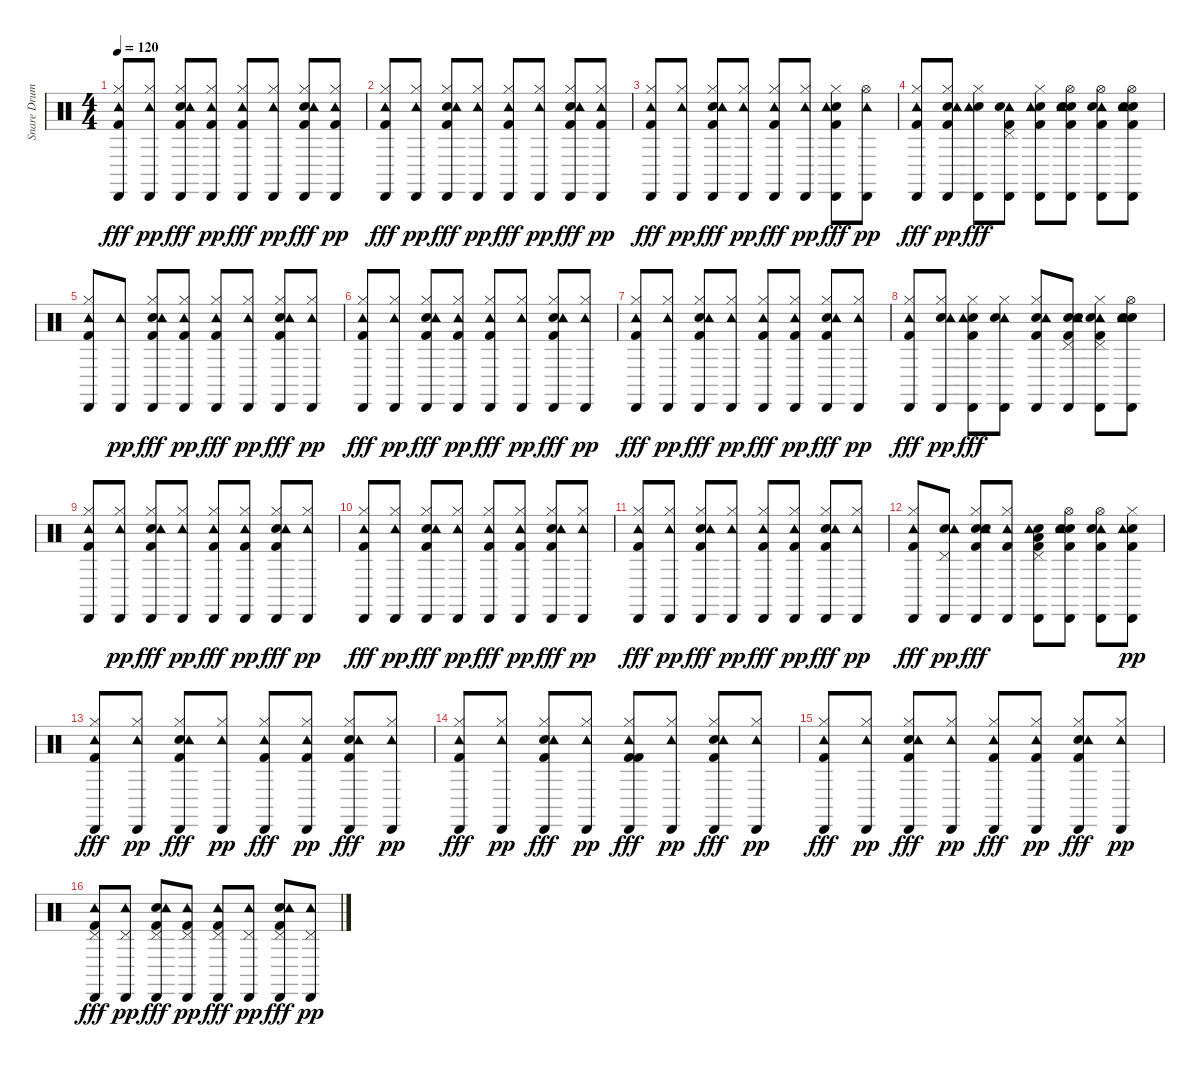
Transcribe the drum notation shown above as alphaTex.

\track ("Snare Drum      " "Snare Drum") {instrument percussion}
\staff {score}
\articulation defaults
\ts (4 4)
\tempo 120
\clef neutral
\ks c
("Kick (hit) 2" "Hi-Hat (closed)" "Tambourine (hit)" "Cabasa (hit)").8{dy fff} ("Hi-Hat (closed)" "Tambourine (hit)" "Cabasa (hit)").8{dy pp} ("Snare (hit) 2" "Kick (hit) 2" "Hi-Hat (closed)" "Tambourine (hit)" "Cabasa (hit)").8{dy fff} ("Kick (hit) 2" "Hi-Hat (closed)" "Tambourine (hit)" "Cabasa (hit)").8{dy pp} ("Kick (hit) 2" "Hi-Hat (closed)" "Tambourine (hit)" "Cabasa (hit)").8{dy fff} ("Hi-Hat (closed)" "Tambourine (hit)" "Cabasa (hit)").8{dy pp} ("Snare (hit) 2" "Kick (hit) 2" "Hi-Hat (closed)" "Tambourine (hit)" "Cabasa (hit)").8{dy fff} ("Kick (hit) 2" "Hi-Hat (closed)" "Tambourine (hit)" "Cabasa (hit)").8{dy pp} |
("Kick (hit) 2" "Hi-Hat (closed)" "Tambourine (hit)" "Cabasa (hit)").8{dy fff} ("Hi-Hat (closed)" "Tambourine (hit)" "Cabasa (hit)").8{dy pp} ("Snare (hit) 2" "Kick (hit) 2" "Hi-Hat (closed)" "Tambourine (hit)" "Cabasa (hit)").8{dy fff} ("Hi-Hat (closed)" "Tambourine (hit)" "Cabasa (hit)").8{dy pp} ("Kick (hit) 2" "Hi-Hat (closed)" "Tambourine (hit)" "Cabasa (hit)").8{dy fff} ("Hi-Hat (closed)" "Tambourine (hit)" "Cabasa (hit)").8{dy pp} ("Snare (hit) 2" "Kick (hit) 2" "Hi-Hat (closed)" "Tambourine (hit)" "Cabasa (hit)").8{dy fff} ("Kick (hit) 2" "Hi-Hat (closed)" "Tambourine (hit)" "Cabasa (hit)").8{dy pp} |
("Kick (hit) 2" "Hi-Hat (closed)" "Tambourine (hit)" "Cabasa (hit)").8{dy fff} ("Hi-Hat (closed)" "Tambourine (hit)" "Cabasa (hit)").8{dy pp} ("Snare (hit) 2" "Kick (hit) 2" "Hi-Hat (closed)" "Tambourine (hit)" "Cabasa (hit)").8{dy fff} ("Hi-Hat (closed)" "Tambourine (hit)" "Cabasa (hit)").8{dy pp} ("Kick (hit) 2" "Hi-Hat (closed)" "Tambourine (hit)" "Cabasa (hit)").8{dy fff} ("Hi-Hat (closed)" "Tambourine (hit)" "Cabasa (hit)").8{dy pp} ("Snare (hit) 2" "Kick (hit) 2" "Hi-Hat (closed)" "Tambourine (hit)" "Cabasa (hit)").8{dy fff} ("Hi-Hat (open)" "Tambourine (hit)" "Cabasa (hit)").8{dy pp} |
("Kick (hit) 2" "Hi-Hat (closed)" "Tambourine (hit)" "Cabasa (hit)").8{dy fff} ("Snare (hit) 2" "Kick (hit) 2" "Hi-Hat (closed)" "Tambourine (hit)" "Cabasa (hit)").8{dy pp} ("Snare (hit) 2" "Hi-Hat (closed)" "Tambourine (hit)" "Cabasa (hit)").8{dy fff} ("Kick (hit) 2" "Pedal Hi-Hat (hit)" "Tambourine (hit)" "Cabasa (hit)" "Snare (hit) 2").8 ("Snare (hit) 2" "Kick (hit) 2" "Hi-Hat (closed)" "Tambourine (hit)" "Cabasa (hit)").8 ("Snare (hit) 2" "Hi-Hat (open)" "Tambourine (hit)" "Cabasa (hit)" "Snare (hit) 2" "Kick (hit) 2").8 ("Kick (hit) 2" "Hi-Hat (open)" "Tambourine (hit)" "Cabasa (hit)" "Snare (hit) 2").8 ("Snare (hit) 2" "Kick (hit) 2" "Hi-Hat (open)" "Tambourine (hit)" "Cabasa (hit)" "Snare (hit) 2").8 |
("Kick (hit) 2" "Hi-Hat (closed)" "Tambourine (hit)" "Cabasa (hit)").8 ("Tambourine (hit)" "Cabasa (hit)").8{dy pp} ("Snare (hit) 2" "Kick (hit) 2" "Hi-Hat (closed)" "Tambourine (hit)" "Cabasa (hit)").8{dy fff} ("Kick (hit) 2" "Hi-Hat (closed)" "Tambourine (hit)" "Cabasa (hit)").8{dy pp} ("Kick (hit) 2" "Hi-Hat (closed)" "Tambourine (hit)" "Cabasa (hit)").8{dy fff} ("Hi-Hat (closed)" "Tambourine (hit)" "Cabasa (hit)").8{dy pp} ("Snare (hit) 2" "Kick (hit) 2" "Hi-Hat (closed)" "Tambourine (hit)" "Cabasa (hit)").8{dy fff} ("Hi-Hat (closed)" "Tambourine (hit)" "Cabasa (hit)").8{dy pp} |
("Kick (hit) 2" "Hi-Hat (closed)" "Tambourine (hit)" "Cabasa (hit)").8{dy fff} ("Hi-Hat (closed)" "Tambourine (hit)" "Cabasa (hit)").8{dy pp} ("Snare (hit) 2" "Kick (hit) 2" "Hi-Hat (closed)" "Tambourine (hit)" "Cabasa (hit)").8{dy fff} ("Kick (hit) 2" "Hi-Hat (closed)" "Tambourine (hit)" "Cabasa (hit)").8{dy pp} ("Kick (hit) 2" "Hi-Hat (closed)" "Tambourine (hit)" "Cabasa (hit)").8{dy fff} ("Hi-Hat (closed)" "Tambourine (hit)" "Cabasa (hit)").8{dy pp} ("Snare (hit) 2" "Kick (hit) 2" "Hi-Hat (closed)" "Tambourine (hit)" "Cabasa (hit)").8{dy fff} ("Hi-Hat (closed)" "Tambourine (hit)" "Cabasa (hit)").8{dy pp} |
("Kick (hit) 2" "Hi-Hat (closed)" "Tambourine (hit)" "Cabasa (hit)").8{dy fff} ("Hi-Hat (closed)" "Tambourine (hit)" "Cabasa (hit)").8{dy pp} ("Snare (hit) 2" "Kick (hit) 2" "Hi-Hat (closed)" "Tambourine (hit)" "Cabasa (hit)").8{dy fff} ("Hi-Hat (closed)" "Tambourine (hit)" "Cabasa (hit)").8{dy pp} ("Kick (hit) 2" "Hi-Hat (closed)" "Tambourine (hit)" "Cabasa (hit)").8{dy fff} ("Kick (hit) 2" "Hi-Hat (closed)" "Tambourine (hit)" "Cabasa (hit)").8{dy pp} ("Snare (hit) 2" "Kick (hit) 2" "Hi-Hat (closed)" "Tambourine (hit)" "Cabasa (hit)").8{dy fff} ("Hi-Hat (closed)" "Tambourine (hit)" "Cabasa (hit)").8{dy pp} |
("Kick (hit) 2" "Hi-Hat (closed)" "Tambourine (hit)" "Cabasa (hit)").8{dy fff} ("Snare (hit) 2" "Hi-Hat (closed)" "Tambourine (hit)" "Cabasa (hit)").8{dy pp} ("Snare (hit) 2" "Kick (hit) 2" "Hi-Hat (closed)" "Tambourine (hit)" "Cabasa (hit)").8{dy fff} ("Hi-Hat (closed)" "Tambourine (hit)" "Cabasa (hit)" "Snare (hit) 2").8 ("Snare (hit) 2" "Kick (hit) 2" "Hi-Hat (closed)" "Tambourine (hit)" "Cabasa (hit)").8 ("Snare (hit) 2" "Kick (hit) 2" "Pedal Hi-Hat (hit)" "Tambourine (hit)" "Cabasa (hit)" "Snare (hit) 2").8 ("Kick (hit) 2" "Hi-Hat (closed)" "Tambourine (hit)" "Cabasa (hit)" "Snare (hit) 2" "Pedal Hi-Hat (hit)").8 ("Snare (hit) 2" "Tambourine (hit)" "Cabasa (hit)" "Snare (hit) 2" "Hi-Hat (open)").8 |
("Kick (hit) 2" "Hi-Hat (closed)" "Tambourine (hit)" "Cabasa (hit)").8 ("Hi-Hat (closed)" "Tambourine (hit)" "Cabasa (hit)").8{dy pp} ("Snare (hit) 2" "Kick (hit) 2" "Hi-Hat (closed)" "Tambourine (hit)" "Cabasa (hit)").8{dy fff} ("Hi-Hat (closed)" "Tambourine (hit)" "Cabasa (hit)").8{dy pp} ("Kick (hit) 2" "Hi-Hat (closed)" "Tambourine (hit)" "Cabasa (hit)").8{dy fff} ("Kick (hit) 2" "Hi-Hat (closed)" "Tambourine (hit)" "Cabasa (hit)").8{dy pp} ("Snare (hit) 2" "Kick (hit) 2" "Hi-Hat (closed)" "Tambourine (hit)" "Cabasa (hit)").8{dy fff} ("Hi-Hat (closed)" "Tambourine (hit)" "Cabasa (hit)").8{dy pp} |
("Kick (hit) 2" "Hi-Hat (closed)" "Tambourine (hit)" "Cabasa (hit)").8{dy fff} ("Hi-Hat (closed)" "Tambourine (hit)" "Cabasa (hit)").8{dy pp} ("Snare (hit) 2" "Kick (hit) 2" "Hi-Hat (closed)" "Tambourine (hit)" "Cabasa (hit)").8{dy fff} ("Hi-Hat (closed)" "Tambourine (hit)" "Cabasa (hit)").8{dy pp} ("Kick (hit) 2" "Hi-Hat (closed)" "Tambourine (hit)" "Cabasa (hit)").8{dy fff} ("Kick (hit) 2" "Hi-Hat (closed)" "Tambourine (hit)" "Cabasa (hit)").8{dy pp} ("Snare (hit) 2" "Kick (hit) 2" "Hi-Hat (closed)" "Tambourine (hit)" "Cabasa (hit)").8{dy fff} ("Hi-Hat (closed)" "Tambourine (hit)" "Cabasa (hit)").8{dy pp} |
("Kick (hit) 2" "Hi-Hat (closed)" "Tambourine (hit)" "Cabasa (hit)").8{dy fff} ("Hi-Hat (closed)" "Tambourine (hit)" "Cabasa (hit)").8{dy pp} ("Snare (hit) 2" "Kick (hit) 2" "Hi-Hat (closed)" "Tambourine (hit)" "Cabasa (hit)").8{dy fff} ("Hi-Hat (closed)" "Tambourine (hit)" "Cabasa (hit)").8{dy pp} ("Kick (hit) 2" "Hi-Hat (closed)" "Tambourine (hit)" "Cabasa (hit)").8{dy fff} ("Kick (hit) 2" "Hi-Hat (closed)" "Tambourine (hit)" "Cabasa (hit)").8{dy pp} ("Snare (hit) 2" "Kick (hit) 2" "Hi-Hat (closed)" "Tambourine (hit)" "Cabasa (hit)").8{dy fff} ("Hi-Hat (closed)" "Tambourine (hit)" "Cabasa (hit)").8{dy pp} |
("Kick (hit) 2" "Hi-Hat (closed)" "Tambourine (hit)" "Cabasa (hit)").8{dy fff} ("Snare (hit) 2" "Pedal Hi-Hat (hit)" "Tambourine (hit)" "Cabasa (hit)").8{dy pp} ("Snare (hit) 2" "Kick (hit) 2" "Hi-Hat (closed)" "Tambourine (hit)" "Cabasa (hit)" "Snare (hit) 2").8{dy fff} ("Tambourine (hit)" "Cabasa (hit)" "Kick (hit) 2" "Hi-Hat (closed)").8 ("Snare (hit) 2" "Kick (hit) 2" "Pedal Hi-Hat (hit)" "Low Tom (hit)" "Tambourine (hit)" "Cabasa (hit)").8 ("Snare (hit) 2" "Hi-Hat (open)" "Tambourine (hit)" "Cabasa (hit)" "Snare (hit) 2" "Kick (hit) 2").8 ("Kick (hit) 2" "Hi-Hat (open)" "Tambourine (hit)" "Cabasa (hit)" "Snare (hit) 2").8 ("Snare (hit) 2" "Kick (hit) 2" "Hi-Hat (closed)" "Tambourine (hit)" "Cabasa (hit)").8{dy pp} |
("Kick (hit) 2" "Hi-Hat (closed)" "Tambourine (hit)" "Cabasa (hit)").8{dy fff} ("Hi-Hat (closed)" "Tambourine (hit)" "Cabasa (hit)").8{dy pp} ("Snare (hit) 2" "Kick (hit) 2" "Hi-Hat (closed)" "Tambourine (hit)" "Cabasa (hit)").8{dy fff} ("Hi-Hat (closed)" "Tambourine (hit)" "Cabasa (hit)").8{dy pp} ("Kick (hit) 2" "Hi-Hat (closed)" "Tambourine (hit)" "Cabasa (hit)").8{dy fff} ("Kick (hit) 2" "Hi-Hat (closed)" "Tambourine (hit)" "Cabasa (hit)").8{dy pp} ("Snare (hit) 2" "Kick (hit) 2" "Hi-Hat (closed)" "Tambourine (hit)" "Cabasa (hit)").8{dy fff} ("Hi-Hat (closed)" "Tambourine (hit)" "Cabasa (hit)").8{dy pp} |
("Kick (hit) 2" "Hi-Hat (closed)" "Tambourine (hit)" "Cabasa (hit)").8{dy fff} ("Hi-Hat (closed)" "Tambourine (hit)" "Cabasa (hit)").8{dy pp} ("Snare (hit) 2" "Kick (hit) 2" "Hi-Hat (closed)" "Tambourine (hit)" "Cabasa (hit)").8{dy fff} ("Hi-Hat (closed)" "Tambourine (hit)" "Cabasa (hit)").8{dy pp} ("Kick (hit) 2" "Hi-Hat (closed)" "Tambourine (hit)" "Cabasa (hit)" "Kick (hit) 2").8{dy fff} ("Hi-Hat (closed)" "Tambourine (hit)" "Cabasa (hit)").8{dy pp} ("Snare (hit) 2" "Kick (hit) 2" "Hi-Hat (closed)" "Tambourine (hit)" "Cabasa (hit)").8{dy fff} ("Hi-Hat (closed)" "Tambourine (hit)" "Cabasa (hit)").8{dy pp} |
("Kick (hit) 2" "Hi-Hat (closed)" "Tambourine (hit)" "Cabasa (hit)").8{dy fff} ("Hi-Hat (closed)" "Tambourine (hit)" "Cabasa (hit)").8{dy pp} ("Snare (hit) 2" "Kick (hit) 2" "Hi-Hat (closed)" "Tambourine (hit)" "Cabasa (hit)").8{dy fff} ("Hi-Hat (closed)" "Tambourine (hit)" "Cabasa (hit)").8{dy pp} ("Kick (hit) 2" "Hi-Hat (closed)" "Tambourine (hit)" "Cabasa (hit)").8{dy fff} ("Kick (hit) 2" "Hi-Hat (closed)" "Tambourine (hit)" "Cabasa (hit)").8{dy pp} ("Snare (hit) 2" "Kick (hit) 2" "Hi-Hat (closed)" "Tambourine (hit)" "Cabasa (hit)").8{dy fff} ("Hi-Hat (closed)" "Tambourine (hit)" "Cabasa (hit)").8{dy pp} |
("Kick (hit) 2" "Pedal Hi-Hat (hit)" "Tambourine (hit)" "Cabasa (hit)").8{dy fff} ("Pedal Hi-Hat (hit)" "Tambourine (hit)" "Cabasa (hit)").8{dy pp} ("Snare (hit) 2" "Kick (hit) 2" "Pedal Hi-Hat (hit)" "Tambourine (hit)" "Cabasa (hit)").8{dy fff} ("Kick (hit) 2" "Pedal Hi-Hat (hit)" "Tambourine (hit)" "Cabasa (hit)").8{dy pp} ("Kick (hit) 2" "Pedal Hi-Hat (hit)" "Tambourine (hit)" "Cabasa (hit)").8{dy fff} ("Pedal Hi-Hat (hit)" "Tambourine (hit)" "Cabasa (hit)").8{dy pp} ("Snare (hit) 2" "Kick (hit) 2" "Pedal Hi-Hat (hit)" "Tambourine (hit)" "Cabasa (hit)").8{dy fff} ("Pedal Hi-Hat (hit)" "Tambourine (hit)" "Cabasa (hit)").8{dy pp}
